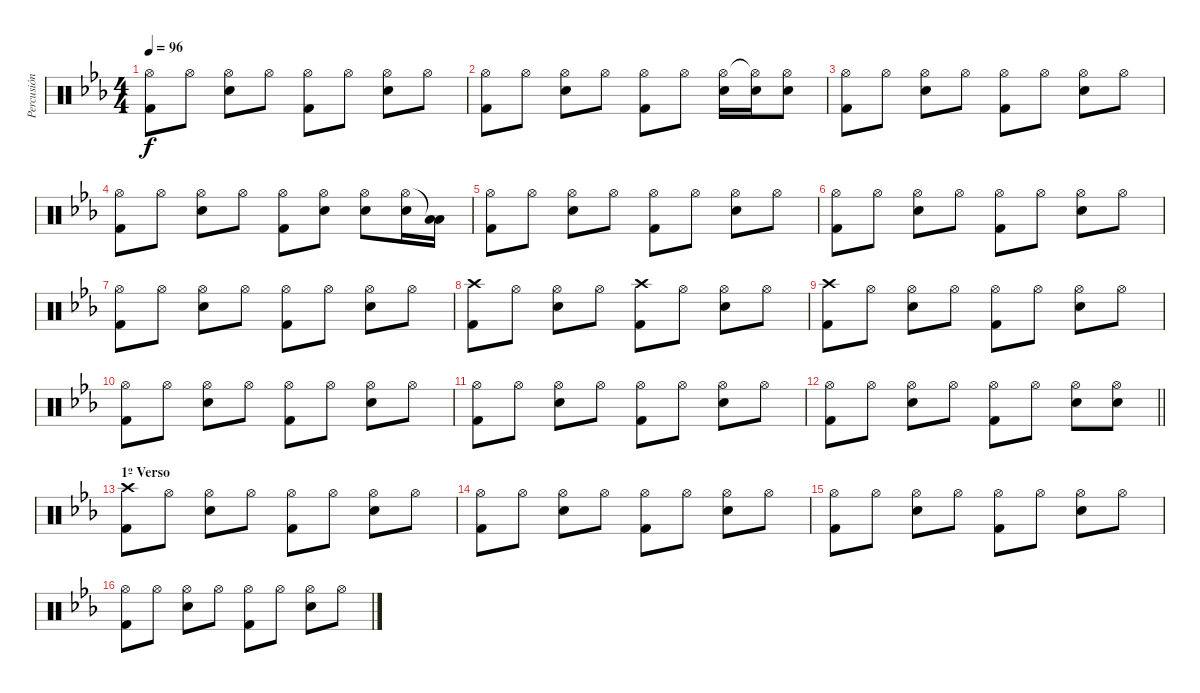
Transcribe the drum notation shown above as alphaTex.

\track ("Percusión" "Percusión") {instrument percussion}
\staff {score}
\articulation defaults
\ts (4 4)
\tempo 96
\clef neutral
\ks eb
("Hi-Hat (open)" "Kick (hit) 2").8{dy f} "Hi-Hat (open)".8 ("Hi-Hat (open)" "Electric Snare (hit)").8 "Hi-Hat (open)".8 ("Hi-Hat (open)" "Kick (hit) 2").8 "Hi-Hat (open)".8 ("Hi-Hat (open)" "Electric Snare (hit)").8 "Hi-Hat (open)".8 |
("Hi-Hat (open)" "Kick (hit) 2").8 "Hi-Hat (open)".8 ("Hi-Hat (open)" "Electric Snare (hit)").8 "Hi-Hat (open)".8 ("Hi-Hat (open)" "Kick (hit) 2").8 "Hi-Hat (open)".8 ("Hi-Hat (open)" "Electric Snare (hit)").16 ("Hi-Hat (open)"{t} "Electric Snare (hit)").16 ("Hi-Hat (open)" "Electric Snare (hit)").8 |
("Hi-Hat (open)" "Kick (hit) 2").8 "Hi-Hat (open)".8 ("Hi-Hat (open)" "Electric Snare (hit)").8 "Hi-Hat (open)".8 ("Hi-Hat (open)" "Kick (hit) 2").8 "Hi-Hat (open)".8 ("Hi-Hat (open)" "Electric Snare (hit)").8 "Hi-Hat (open)".8 |
("Hi-Hat (open)" "Kick (hit) 2").8 "Hi-Hat (open)".8 ("Hi-Hat (open)" "Electric Snare (hit)").8 "Hi-Hat (open)".8 ("Hi-Hat (open)" "Kick (hit) 2").8 ("Hi-Hat (open)" "Electric Snare (hit)").8 ("Hi-Hat (open)" "Electric Snare (hit)").8 ("Hi-Hat (open)" "Electric Snare (hit)").16 ("Low Tom (hit)"{t} "Low Tom (hit)").16 |
("Hi-Hat (open)" "Kick (hit) 2").8 "Hi-Hat (open)".8 ("Hi-Hat (open)" "Electric Snare (hit)").8 "Hi-Hat (open)".8 ("Hi-Hat (open)" "Kick (hit) 2").8 "Hi-Hat (open)".8 ("Hi-Hat (open)" "Electric Snare (hit)").8 "Hi-Hat (open)".8 |
("Hi-Hat (open)" "Kick (hit) 2").8 "Hi-Hat (open)".8 ("Hi-Hat (open)" "Electric Snare (hit)").8 "Hi-Hat (open)".8 ("Hi-Hat (open)" "Kick (hit) 2").8 "Hi-Hat (open)".8 ("Hi-Hat (open)" "Electric Snare (hit)").8 "Hi-Hat (open)".8 |
("Hi-Hat (open)" "Kick (hit) 2").8 "Hi-Hat (open)".8 ("Hi-Hat (open)" "Electric Snare (hit)").8 "Hi-Hat (open)".8 ("Hi-Hat (open)" "Kick (hit) 2").8 "Hi-Hat (open)".8 ("Hi-Hat (open)" "Electric Snare (hit)").8 "Hi-Hat (open)".8 |
("Crash high (hit)" "Kick (hit) 2").8 "Hi-Hat (open)".8 ("Hi-Hat (open)" "Electric Snare (hit)").8 "Hi-Hat (open)".8 ("Crash high (hit)" "Kick (hit) 2").8 "Hi-Hat (open)".8 ("Hi-Hat (open)" "Electric Snare (hit)").8 "Hi-Hat (open)".8 |
("Crash high (hit)" "Kick (hit) 2").8 "Hi-Hat (open)".8 ("Hi-Hat (open)" "Electric Snare (hit)").8 "Hi-Hat (open)".8 ("Hi-Hat (open)" "Kick (hit) 2").8 "Hi-Hat (open)".8 ("Hi-Hat (open)" "Electric Snare (hit)").8 "Hi-Hat (open)".8 |
("Hi-Hat (open)" "Kick (hit) 2").8 "Hi-Hat (open)".8 ("Hi-Hat (open)" "Electric Snare (hit)").8 "Hi-Hat (open)".8 ("Hi-Hat (open)" "Kick (hit) 2").8 "Hi-Hat (open)".8 ("Hi-Hat (open)" "Electric Snare (hit)").8 "Hi-Hat (open)".8 |
("Hi-Hat (open)" "Kick (hit) 2").8 "Hi-Hat (open)".8 ("Hi-Hat (open)" "Electric Snare (hit)").8 "Hi-Hat (open)".8 ("Hi-Hat (open)" "Kick (hit) 2").8 "Hi-Hat (open)".8 ("Hi-Hat (open)" "Electric Snare (hit)").8 "Hi-Hat (open)".8 |
\barLineRight lightlight
("Hi-Hat (open)" "Kick (hit) 2").8 "Hi-Hat (open)".8 ("Hi-Hat (open)" "Electric Snare (hit)").8 "Hi-Hat (open)".8 ("Hi-Hat (open)" "Kick (hit) 2").8 "Hi-Hat (open)".8 ("Hi-Hat (open)" "Electric Snare (hit)").8 ("Hi-Hat (open)" "Electric Snare (hit)").8 |
\section ("" "1º Verso")
("Crash high (hit)" "Kick (hit) 2").8 "Hi-Hat (open)".8 ("Hi-Hat (open)" "Electric Snare (hit)").8 "Hi-Hat (open)".8 ("Hi-Hat (open)" "Kick (hit) 2").8 "Hi-Hat (open)".8 ("Hi-Hat (open)" "Electric Snare (hit)").8 "Hi-Hat (open)".8 |
("Hi-Hat (open)" "Kick (hit) 2").8 "Hi-Hat (open)".8 ("Hi-Hat (open)" "Electric Snare (hit)").8 "Hi-Hat (open)".8 ("Hi-Hat (open)" "Kick (hit) 2").8 "Hi-Hat (open)".8 ("Hi-Hat (open)" "Electric Snare (hit)").8 "Hi-Hat (open)".8 |
("Hi-Hat (open)" "Kick (hit) 2").8 "Hi-Hat (open)".8 ("Hi-Hat (open)" "Electric Snare (hit)").8 "Hi-Hat (open)".8 ("Hi-Hat (open)" "Kick (hit) 2").8 "Hi-Hat (open)".8 ("Hi-Hat (open)" "Electric Snare (hit)").8 "Hi-Hat (open)".8 |
("Hi-Hat (open)" "Kick (hit) 2").8 "Hi-Hat (open)".8 ("Hi-Hat (open)" "Electric Snare (hit)").8 "Hi-Hat (open)".8 ("Hi-Hat (open)" "Kick (hit) 2").8 "Hi-Hat (open)".8 ("Hi-Hat (open)" "Electric Snare (hit)").8 "Hi-Hat (open)".8
